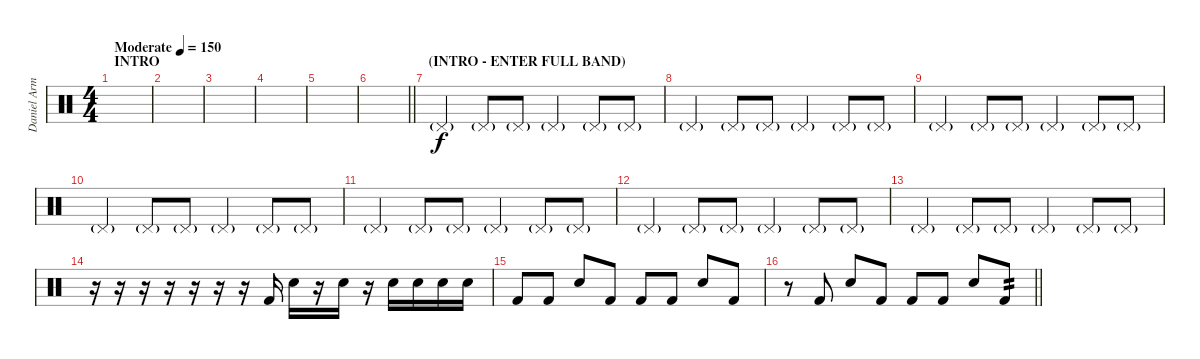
\track ("Daniel Armstrong" "Daniel Arm") {instrument percussion}
\staff {score}
\articulation defaults
\ts (4 4)
\section ("" "INTRO")
\tempo (150 "Moderate")
\clef neutral
\ks c
|
|
|
|
|
\barLineRight lightlight
|
\section ("" "(INTRO - ENTER FULL BAND)")
"Pedal Hi-Hat (hit)"{g}.4 "Pedal Hi-Hat (hit)"{g}.8 "Pedal Hi-Hat (hit)"{g}.8 "Pedal Hi-Hat (hit)"{g}.4 "Pedal Hi-Hat (hit)"{g}.8 "Pedal Hi-Hat (hit)"{g}.8 |
"Pedal Hi-Hat (hit)"{g}.4 "Pedal Hi-Hat (hit)"{g}.8 "Pedal Hi-Hat (hit)"{g}.8 "Pedal Hi-Hat (hit)"{g}.4 "Pedal Hi-Hat (hit)"{g}.8 "Pedal Hi-Hat (hit)"{g}.8 |
"Pedal Hi-Hat (hit)"{g}.4 "Pedal Hi-Hat (hit)"{g}.8 "Pedal Hi-Hat (hit)"{g}.8 "Pedal Hi-Hat (hit)"{g}.4 "Pedal Hi-Hat (hit)"{g}.8 "Pedal Hi-Hat (hit)"{g}.8 |
"Pedal Hi-Hat (hit)"{g}.4 "Pedal Hi-Hat (hit)"{g}.8 "Pedal Hi-Hat (hit)"{g}.8 "Pedal Hi-Hat (hit)"{g}.4 "Pedal Hi-Hat (hit)"{g}.8 "Pedal Hi-Hat (hit)"{g}.8 |
"Pedal Hi-Hat (hit)"{g}.4 "Pedal Hi-Hat (hit)"{g}.8 "Pedal Hi-Hat (hit)"{g}.8 "Pedal Hi-Hat (hit)"{g}.4 "Pedal Hi-Hat (hit)"{g}.8 "Pedal Hi-Hat (hit)"{g}.8 |
"Pedal Hi-Hat (hit)"{g}.4 "Pedal Hi-Hat (hit)"{g}.8 "Pedal Hi-Hat (hit)"{g}.8 "Pedal Hi-Hat (hit)"{g}.4 "Pedal Hi-Hat (hit)"{g}.8 "Pedal Hi-Hat (hit)"{g}.8 |
"Pedal Hi-Hat (hit)"{g}.4 "Pedal Hi-Hat (hit)"{g}.8 "Pedal Hi-Hat (hit)"{g}.8 "Pedal Hi-Hat (hit)"{g}.4 "Pedal Hi-Hat (hit)"{g}.8 "Pedal Hi-Hat (hit)"{g}.8 |
r.16 r.16 r.16 r.16 r.16 r.16 r.16 "Kick (hit) 2".16{dy f} "Electric Snare (hit)".16 r.16 "Electric Snare (hit)".16 r.16 "Electric Snare (hit)".16 "Electric Snare (hit)".16 "Electric Snare (hit)".16 "Electric Snare (hit)".16 |
"Kick (hit) 2".8 "Kick (hit) 2".8 "Electric Snare (hit)".8 "Kick (hit) 2".8 "Kick (hit) 2".8 "Kick (hit) 2".8 "Electric Snare (hit)".8 "Kick (hit) 2".8 |
\barLineRight lightlight
r.8 "Kick (hit) 2".8 "Electric Snare (hit)".8 "Kick (hit) 2".8 "Kick (hit) 2".8 "Kick (hit) 2".8 "Electric Snare (hit)".8 "Kick (hit) 2".8{tp 2}
